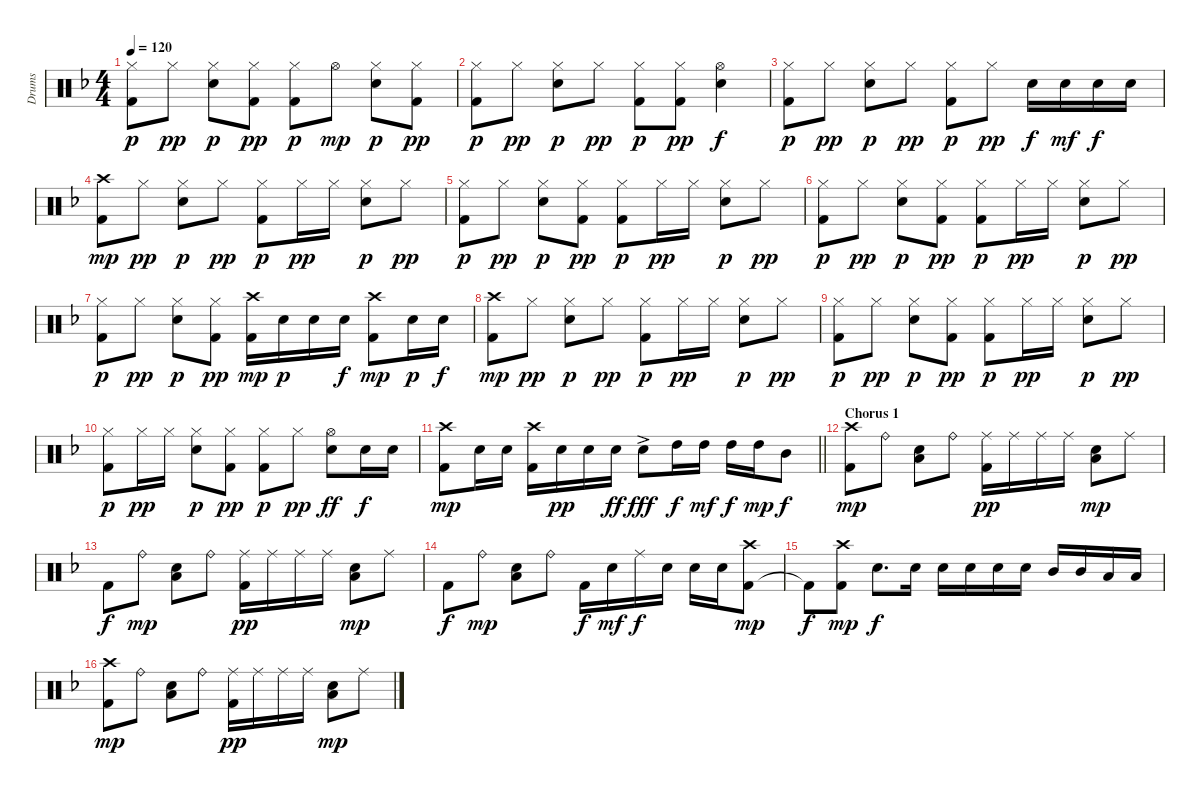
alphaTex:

\track ("Drums" "Drums") {instrument percussion}
\staff {score}
\articulation defaults
\ts (4 4)
\tempo 120
\clef neutral
\ks dminor
("Hi-Hat (closed)" "Kick (hit) 2").8{dy p} "Hi-Hat (closed)".8{dy pp} ("Hi-Hat (closed)" "Electric Snare (hit)").8{dy p} ("Hi-Hat (closed)" "Kick (hit) 2").8{dy pp} ("Hi-Hat (closed)" "Kick (hit) 2").8{dy p} "Hi-Hat (open)".8{dy mp} ("Hi-Hat (closed)" "Electric Snare (hit)").8{dy p} ("Hi-Hat (closed)" "Kick (hit) 2").8{dy pp} |
("Hi-Hat (closed)" "Kick (hit) 2").8{dy p} "Hi-Hat (closed)".8{dy pp} ("Hi-Hat (closed)" "Electric Snare (hit)").8{dy p} "Hi-Hat (closed)".8{dy pp} ("Hi-Hat (closed)" "Kick (hit) 2").8{dy p} ("Hi-Hat (closed)" "Kick (hit) 2").8{dy pp} ("Hi-Hat (open)" "Electric Snare (hit)").4{dy f} |
("Hi-Hat (closed)" "Kick (hit) 2").8{dy p} "Hi-Hat (closed)".8{dy pp} ("Hi-Hat (closed)" "Electric Snare (hit)").8{dy p} "Hi-Hat (closed)".8{dy pp} ("Hi-Hat (closed)" "Kick (hit) 2").8{dy p} "Hi-Hat (closed)".8{dy pp} "Electric Snare (hit)".16{dy f} "Electric Snare (hit)".16{dy mf} "Electric Snare (hit)".16{dy f} "Electric Snare (hit)".16 |
("Crash high (hit)" "Kick (hit) 2").8{dy mp} "Hi-Hat (closed)".8{dy pp} ("Hi-Hat (closed)" "Electric Snare (hit)").8{dy p} "Hi-Hat (closed)".8{dy pp} ("Hi-Hat (closed)" "Kick (hit) 2").8{dy p} "Hi-Hat (closed)".16{dy pp} "Hi-Hat (closed)".16 ("Hi-Hat (closed)" "Electric Snare (hit)").8{dy p} "Hi-Hat (closed)".8{dy pp} |
("Hi-Hat (closed)" "Kick (hit) 2").8{dy p} "Hi-Hat (closed)".8{dy pp} ("Hi-Hat (closed)" "Electric Snare (hit)").8{dy p} ("Hi-Hat (closed)" "Kick (hit) 2").8{dy pp} ("Hi-Hat (closed)" "Kick (hit) 2").8{dy p} "Hi-Hat (closed)".16{dy pp} "Hi-Hat (closed)".16 ("Hi-Hat (closed)" "Electric Snare (hit)").8{dy p} "Hi-Hat (closed)".8{dy pp} |
("Hi-Hat (closed)" "Kick (hit) 2").8{dy p} "Hi-Hat (closed)".8{dy pp} ("Hi-Hat (closed)" "Electric Snare (hit)").8{dy p} ("Hi-Hat (closed)" "Kick (hit) 2").8{dy pp} ("Hi-Hat (closed)" "Kick (hit) 2").8{dy p} "Hi-Hat (closed)".16{dy pp} "Hi-Hat (closed)".16 ("Hi-Hat (closed)" "Electric Snare (hit)").8{dy p} "Hi-Hat (closed)".8{dy pp} |
("Hi-Hat (closed)" "Kick (hit) 2").8{dy p} "Hi-Hat (closed)".8{dy pp} ("Hi-Hat (closed)" "Electric Snare (hit)").8{dy p} ("Hi-Hat (closed)" "Kick (hit) 2").8{dy pp} ("Kick (hit) 2" "Crash high (hit)").16{dy mp} "Electric Snare (hit)".16{dy p} "Electric Snare (hit)".16 "Electric Snare (hit)".16{dy f} ("Kick (hit) 2" "Crash high (hit)").8{dy mp} "Electric Snare (hit)".16{dy p} "Electric Snare (hit)".16{dy f} |
("Crash high (hit)" "Kick (hit) 2").8{dy mp} "Hi-Hat (closed)".8{dy pp} ("Hi-Hat (closed)" "Electric Snare (hit)").8{dy p} "Hi-Hat (closed)".8{dy pp} ("Hi-Hat (closed)" "Kick (hit) 2").8{dy p} "Hi-Hat (closed)".16{dy pp} "Hi-Hat (closed)".16 ("Hi-Hat (closed)" "Electric Snare (hit)").8{dy p} "Hi-Hat (closed)".8{dy pp} |
("Hi-Hat (closed)" "Kick (hit) 2").8{dy p} "Hi-Hat (closed)".8{dy pp} ("Hi-Hat (closed)" "Electric Snare (hit)").8{dy p} ("Hi-Hat (closed)" "Kick (hit) 2").8{dy pp} ("Hi-Hat (closed)" "Kick (hit) 2").8{dy p} "Hi-Hat (closed)".16{dy pp} "Hi-Hat (closed)".16 ("Hi-Hat (closed)" "Electric Snare (hit)").8{dy p} "Hi-Hat (closed)".8{dy pp} |
("Hi-Hat (closed)" "Kick (hit) 2").8{dy p} "Hi-Hat (closed)".16{dy pp} "Hi-Hat (closed)".16 ("Hi-Hat (closed)" "Electric Snare (hit)").8{dy p} ("Hi-Hat (closed)" "Kick (hit) 2").8{dy pp} ("Hi-Hat (closed)" "Kick (hit) 2").8{dy p} "Hi-Hat (closed)".8{dy pp} ("Hi-Hat (open)" "Electric Snare (hit)").8{dy ff} "Electric Snare (hit)".16{dy f} "Electric Snare (hit)".16 |
\barLineRight lightlight
("Kick (hit) 2" "Crash high (hit)").8{dy mp} "Electric Snare (hit)".16 "Electric Snare (hit)".16 ("Kick (hit) 2" "Crash high (hit)").16 "Electric Snare (hit)".16{dy pp} "Electric Snare (hit)".16 "Electric Snare (hit)".16{dy ff} "Electric Snare (hit)"{ac}.8{dy fff} "High Tom (hit)".16{dy f} "High Tom (hit)".16{dy mf} "High Tom (hit)".16{dy f} "High Tom (hit)".16{dy mp} "Mid Tom (hit)".8{dy f} |
\section ("" "Chorus 1")
("Kick (hit) 2" "Crash high (hit)").8{dy mp} "Ride (bell)".8 ("Electric Snare (hit)" "Low Tom (hit)").8 "Ride (bell)".8 ("Kick (hit) 2" "Ride (middle)").16{dy pp} "Ride (middle)".16 "Ride (middle)".16 "Ride (middle)".16 ("Electric Snare (hit)" "Low Tom (hit)").8{dy mp} "Ride (middle)".8 |
"Kick (hit) 2".8{dy f} "Ride (bell)".8{dy mp} ("Electric Snare (hit)" "Low Tom (hit)").8 "Ride (bell)".8 ("Kick (hit) 2" "Ride (middle)").16{dy pp} "Ride (middle)".16 "Ride (middle)".16 "Ride (middle)".16 ("Electric Snare (hit)" "Low Tom (hit)").8{dy mp} "Ride (middle)".8 |
"Kick (hit) 2".8{dy f} "Ride (bell)".8{dy mp} ("Electric Snare (hit)" "Low Tom (hit)").8 "Ride (bell)".8 "Kick (hit) 2".16{dy f} "Electric Snare (hit)".16{dy mf} "Ride (middle)".16{dy f} "Electric Snare (hit)".16 "Electric Snare (hit)".16 "Electric Snare (hit)".16 ("Kick (hit) 2" "Crash high (hit)").8{dy mp} |
"Kick (hit) 2"{t}.8{dy f} ("Kick (hit) 2" "Crash high (hit)").8{dy mp} "Electric Snare (hit)".8{d dy f} "Electric Snare (hit)".16 "Electric Snare (hit)".16 "Electric Snare (hit)".16 "Electric Snare (hit)".16 "Electric Snare (hit)".16 "Mid Tom (hit)".16 "Mid Tom (hit)".16 "Low Tom (hit)".16 "Low Tom (hit)".16 |
("Kick (hit) 2" "Crash high (hit)").8{dy mp} "Ride (bell)".8 ("Electric Snare (hit)" "Low Tom (hit)").8 "Ride (bell)".8 ("Kick (hit) 2" "Ride (middle)").16{dy pp} "Ride (middle)".16 "Ride (middle)".16 "Ride (middle)".16 ("Electric Snare (hit)" "Low Tom (hit)").8{dy mp} "Ride (middle)".8
